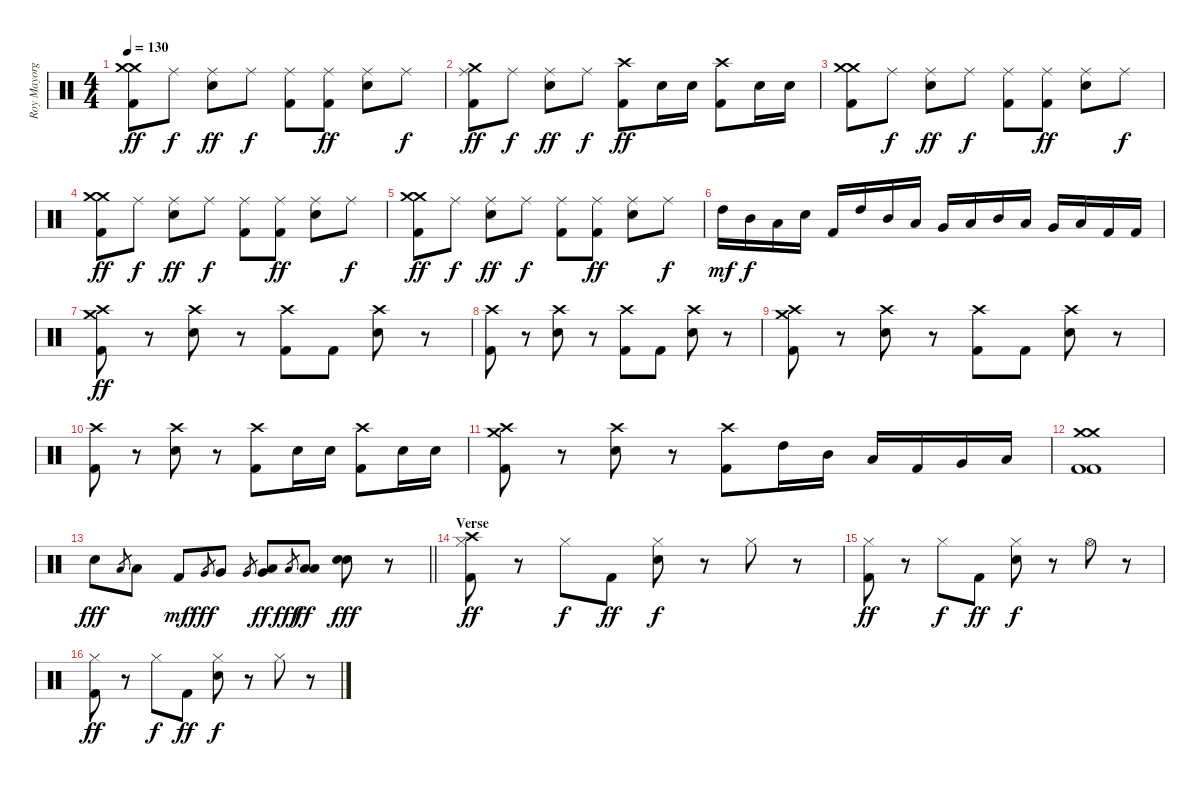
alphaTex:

\track ("Roy Mayorga (Drums)" "Roy Mayorg") {instrument percussion}
\staff {score}
\articulation defaults
\ts (4 4)
\tempo 130
\clef neutral
\ks c
("Crash medium (hit)" "Crash medium (hit)" "Kick (hit) 2").8{dy ff} "Ride (middle)".8{dy f} ("Ride (middle)" "Electric Snare (hit)").8{dy ff} "Ride (middle)".8{dy f} ("Ride (middle)" "Kick (hit) 2").8 ("Ride (middle)" "Kick (hit) 2").8{dy ff} ("Ride (middle)" "Electric Snare (hit)").8 "Ride (middle)".8{dy f} |
("Crash medium (hit)" "Ride (middle)" "Kick (hit) 2").8{dy ff} "Ride (middle)".8{dy f} ("Ride (middle)" "Electric Snare (hit)").8{dy ff} "Ride (middle)".8{dy f} ("Crash high (hit)" "Kick (hit) 2").8{dy ff} "Electric Snare (hit)".16 "Electric Snare (hit)".16 ("Crash high (hit)" "Kick (hit) 2").8 "Electric Snare (hit)".16 "Electric Snare (hit)".16 |
("Crash medium (hit)" "Crash medium (hit)" "Kick (hit) 2").8 "Ride (middle)".8{dy f} ("Ride (middle)" "Electric Snare (hit)").8{dy ff} "Ride (middle)".8{dy f} ("Ride (middle)" "Kick (hit) 2").8 ("Ride (middle)" "Kick (hit) 2").8{dy ff} ("Ride (middle)" "Electric Snare (hit)").8 "Ride (middle)".8{dy f} |
("Crash medium (hit)" "Crash medium (hit)" "Kick (hit) 2").8{dy ff} "Ride (middle)".8{dy f} ("Ride (middle)" "Electric Snare (hit)").8{dy ff} "Ride (middle)".8{dy f} ("Ride (middle)" "Kick (hit) 2").8 ("Ride (middle)" "Kick (hit) 2").8{dy ff} ("Ride (middle)" "Electric Snare (hit)").8 "Ride (middle)".8{dy f} |
("Crash medium (hit)" "Crash medium (hit)" "Kick (hit) 2").8{dy ff} "Ride (middle)".8{dy f} ("Ride (middle)" "Electric Snare (hit)").8{dy ff} "Ride (middle)".8{dy f} ("Ride (middle)" "Kick (hit) 2").8 ("Ride (middle)" "Kick (hit) 2").8{dy ff} ("Ride (middle)" "Electric Snare (hit)").8 "Ride (middle)".8{dy f} |
"High Tom (hit)".16{dy mf} "Mid Tom (hit)".16{dy f} "Low Tom (hit)".16 "Snare (hit) 2".16 "Kick (hit) 2".16 "High Tom (hit)".16 "Mid Tom (hit)".16 "Low Tom (hit)".16 "Very Low Tom (hit)".16 "Low Floor Tom (hit)".16 "Mid Tom (hit)".16 "Low Tom (hit)".16 "Very Low Tom (hit)".16 "Low Floor Tom (hit)".16 "Kick (hit) 2".16 "Kick (hit) 2".16 |
("Crash medium (hit)" "Crash high (hit)" "Kick (hit) 2").8{dy ff} r.8 ("Crash high (hit)" "Electric Snare (hit)").8 r.8 ("Crash high (hit)" "Kick (hit) 2").8 "Kick (hit) 2".8 ("Crash high (hit)" "Electric Snare (hit)").8 r.8 |
("Crash high (hit)" "Kick (hit) 2").8 r.8 ("Crash high (hit)" "Electric Snare (hit)").8 r.8 ("Crash high (hit)" "Kick (hit) 2").8 "Kick (hit) 2".8 ("Crash high (hit)" "Electric Snare (hit)").8 r.8 |
("Crash medium (hit)" "Crash high (hit)" "Kick (hit) 2").8 r.8 ("Crash high (hit)" "Electric Snare (hit)").8 r.8 ("Crash high (hit)" "Kick (hit) 2").8 "Kick (hit) 2".8 ("Crash high (hit)" "Electric Snare (hit)").8 r.8 |
("Crash high (hit)" "Kick (hit) 2").8 r.8 ("Crash high (hit)" "Electric Snare (hit)").8 r.8 ("Crash high (hit)" "Kick (hit) 2").8 "Electric Snare (hit)".16 "Electric Snare (hit)".16 ("Crash high (hit)" "Kick (hit) 2").8 "Electric Snare (hit)".16 "Electric Snare (hit)".16 |
("Crash medium (hit)" "Crash high (hit)" "Kick (hit) 2").8 r.8 ("Crash high (hit)" "Electric Snare (hit)").8 r.8 ("Crash high (hit)" "Kick (hit) 2").8 "High Tom (hit)".16 "Mid Tom (hit)".16 "Low Tom (hit)".16 "Kick (hit) 2".16 "Very Low Tom (hit)".16 "Low Tom (hit)".16 |
("Crash medium (hit)" "Crash medium (hit)" "Kick (hit) 2" "Kick (hit) 2").1 |
\barLineRight lightlight "Snare (hit) 2".8{dy fff} "Low Tom (hit)".8{gr} "Low Tom (hit)".8 "Kick (hit) 2".8{dy mf} "Very Low Tom (hit)".8{gr dy fff} "Very Low Tom (hit)".8 "Very Low Tom (hit)".8{gr}
("Very Low Tom (hit)" "Low Floor Tom (hit)").8{dy ff} "Low Floor Tom (hit)".8{gr dy fff} ("Low Floor Tom (hit)" "Low Tom (hit)").8{dy ff} ("Snare (hit) 2" "Electric Snare (hit)").8{dy fff} r.8 |
\section ("" "Verse")
("Crash high (hit)" "Hi-Hat (closed)" "Kick (hit) 2").8{dy ff} r.8 "Hi-Hat (closed)".8{dy f} "Kick (hit) 2".8{dy ff} ("Hi-Hat (closed)" "Snare (hit) 2").8{dy f} r.8 "Hi-Hat (closed)".8 r.8 |
("Hi-Hat (closed)" "Kick (hit) 2").8{dy ff} r.8 "Hi-Hat (closed)".8{dy f} "Kick (hit) 2".8{dy ff} ("Hi-Hat (closed)" "Snare (hit) 2").8{dy f} r.8 "Hi-Hat (open)".8 r.8 |
("Hi-Hat (closed)" "Kick (hit) 2").8{dy ff} r.8 "Hi-Hat (closed)".8{dy f} "Kick (hit) 2".8{dy ff} ("Hi-Hat (closed)" "Snare (hit) 2").8{dy f} r.8 "Hi-Hat (closed)".8 r.8
